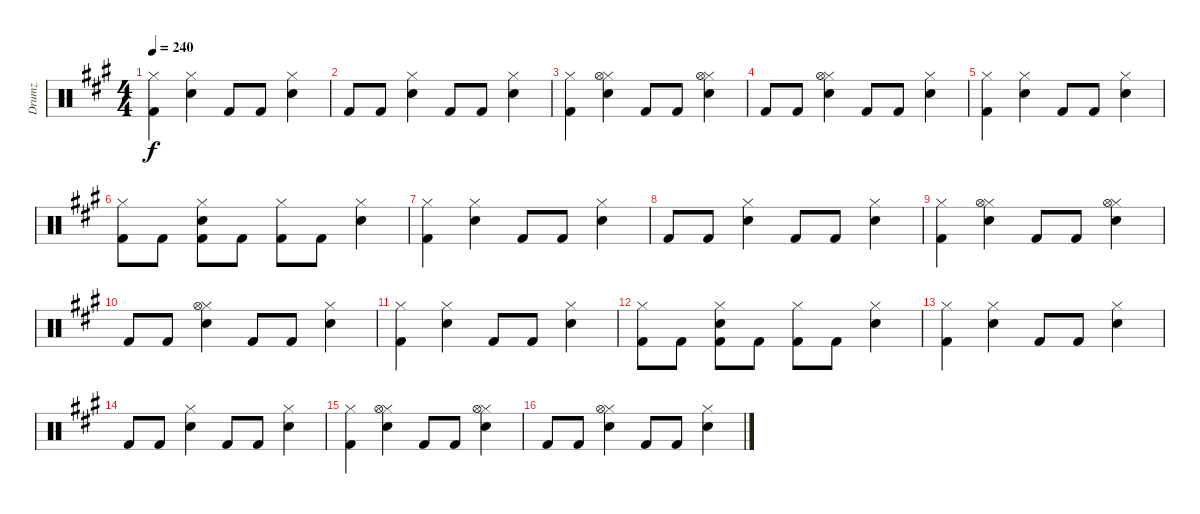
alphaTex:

\track ("Drumz" "Drumz") {instrument percussion}
\staff {score}
\articulation defaults
\ts (4 4)
\tempo 240
\clef neutral
\ks a
("Hi-Hat (closed)" "Kick (hit) 2").4{dy f} ("Hi-Hat (closed)" "Electric Snare (hit)").4 "Kick (hit) 2".8 "Kick (hit) 2".8 ("Electric Snare (hit)" "Hi-Hat (closed)").4 |
"Kick (hit) 2".8 "Kick (hit) 2".8 ("Hi-Hat (closed)" "Electric Snare (hit)").4 "Kick (hit) 2".8 "Kick (hit) 2".8 ("Electric Snare (hit)" "Hi-Hat (closed)").4 |
("Hi-Hat (closed)" "Kick (hit) 2").4 ("Hi-Hat (closed)" "Hi-Hat (open)" "Electric Snare (hit)").4 "Kick (hit) 2".8 "Kick (hit) 2".8 ("Electric Snare (hit)" "Hi-Hat (closed)" "Hi-Hat (open)").4 |
"Kick (hit) 2".8 "Kick (hit) 2".8 ("Hi-Hat (closed)" "Electric Snare (hit)" "Hi-Hat (open)").4 "Kick (hit) 2".8 "Kick (hit) 2".8 ("Electric Snare (hit)" "Hi-Hat (closed)").4 |
("Hi-Hat (closed)" "Kick (hit) 2").4 ("Hi-Hat (closed)" "Electric Snare (hit)").4 "Kick (hit) 2".8 "Kick (hit) 2".8 ("Electric Snare (hit)" "Hi-Hat (closed)").4 |
("Hi-Hat (closed)" "Kick (hit) 2").8 "Kick (hit) 2".8 ("Hi-Hat (closed)" "Electric Snare (hit)" "Kick (hit) 2").8 "Kick (hit) 2".8 ("Hi-Hat (closed)" "Kick (hit) 2").8 "Kick (hit) 2".8 ("Hi-Hat (closed)" "Electric Snare (hit)").4 |
("Hi-Hat (closed)" "Kick (hit) 2").4 ("Hi-Hat (closed)" "Electric Snare (hit)").4 "Kick (hit) 2".8 "Kick (hit) 2".8 ("Electric Snare (hit)" "Hi-Hat (closed)").4 |
"Kick (hit) 2".8 "Kick (hit) 2".8 ("Hi-Hat (closed)" "Electric Snare (hit)").4 "Kick (hit) 2".8 "Kick (hit) 2".8 ("Electric Snare (hit)" "Hi-Hat (closed)").4 |
("Hi-Hat (closed)" "Kick (hit) 2").4 ("Hi-Hat (closed)" "Hi-Hat (open)" "Electric Snare (hit)").4 "Kick (hit) 2".8 "Kick (hit) 2".8 ("Electric Snare (hit)" "Hi-Hat (closed)" "Hi-Hat (open)").4 |
"Kick (hit) 2".8 "Kick (hit) 2".8 ("Hi-Hat (closed)" "Electric Snare (hit)" "Hi-Hat (open)").4 "Kick (hit) 2".8 "Kick (hit) 2".8 ("Electric Snare (hit)" "Hi-Hat (closed)").4 |
("Hi-Hat (closed)" "Kick (hit) 2").4 ("Hi-Hat (closed)" "Electric Snare (hit)").4 "Kick (hit) 2".8 "Kick (hit) 2".8 ("Electric Snare (hit)" "Hi-Hat (closed)").4 |
("Hi-Hat (closed)" "Kick (hit) 2").8 "Kick (hit) 2".8 ("Hi-Hat (closed)" "Electric Snare (hit)" "Kick (hit) 2").8 "Kick (hit) 2".8 ("Hi-Hat (closed)" "Kick (hit) 2").8 "Kick (hit) 2".8 ("Hi-Hat (closed)" "Electric Snare (hit)").4 |
("Hi-Hat (closed)" "Kick (hit) 2").4 ("Hi-Hat (closed)" "Electric Snare (hit)").4 "Kick (hit) 2".8 "Kick (hit) 2".8 ("Electric Snare (hit)" "Hi-Hat (closed)").4 |
"Kick (hit) 2".8 "Kick (hit) 2".8 ("Hi-Hat (closed)" "Electric Snare (hit)").4 "Kick (hit) 2".8 "Kick (hit) 2".8 ("Electric Snare (hit)" "Hi-Hat (closed)").4 |
("Hi-Hat (closed)" "Kick (hit) 2").4 ("Hi-Hat (closed)" "Hi-Hat (open)" "Electric Snare (hit)").4 "Kick (hit) 2".8 "Kick (hit) 2".8 ("Electric Snare (hit)" "Hi-Hat (closed)" "Hi-Hat (open)").4 |
"Kick (hit) 2".8 "Kick (hit) 2".8 ("Hi-Hat (closed)" "Electric Snare (hit)" "Hi-Hat (open)").4 "Kick (hit) 2".8 "Kick (hit) 2".8 ("Electric Snare (hit)" "Hi-Hat (closed)").4
